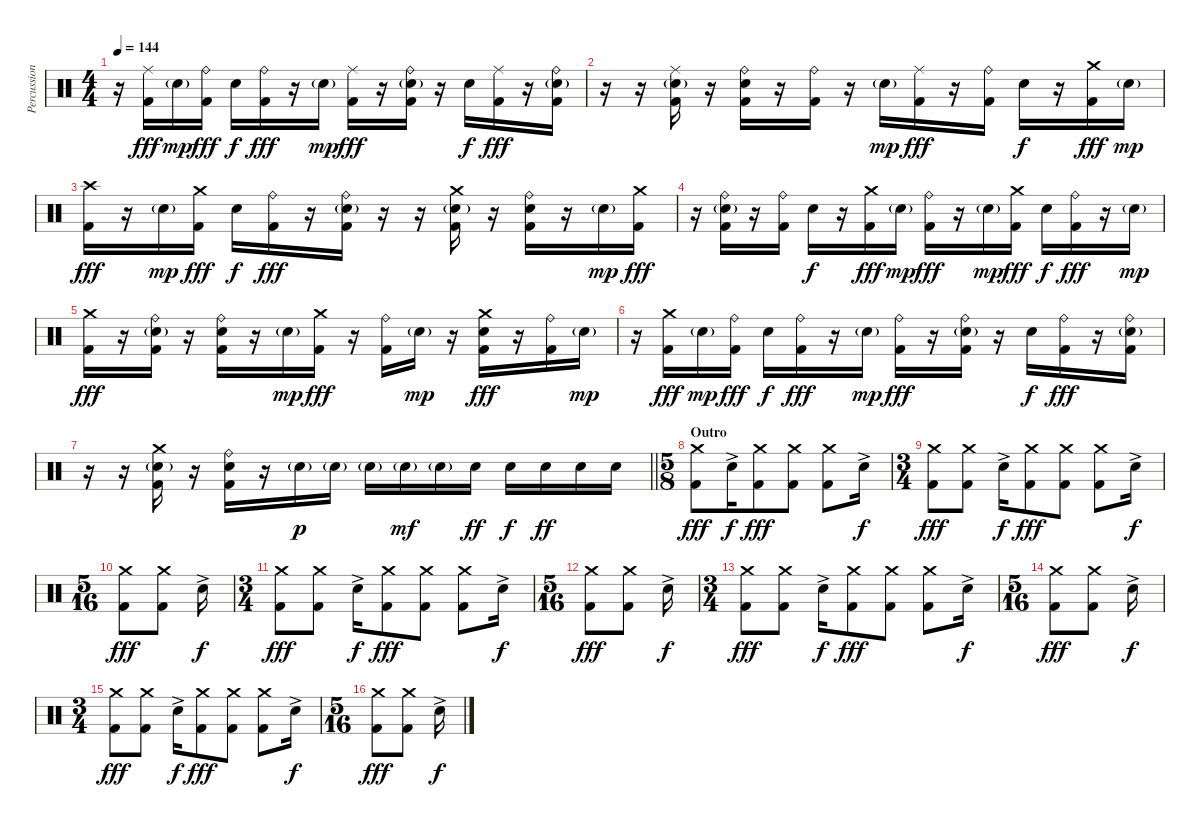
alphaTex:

\track ("Percussion" "Percussion") {instrument percussion}
\staff {score}
\articulation defaults
\ts (4 4)
\tempo 144
\clef neutral
\ks c
r.16{dy mp} ("Ride (middle)" "Kick (hit) 2").16{dy fff} "Electric Snare (hit)"{g}.16{dy mp} ("Ride (bell)" "Kick (hit) 2").16{dy fff} "Electric Snare (hit)".16{dy f} ("Ride (bell)" "Kick (hit) 2").16{dy fff} r.16 "Electric Snare (hit)"{g}.16{dy mp} ("Ride (middle)" "Kick (hit) 2").16{dy fff} r.16 ("Ride (bell)" "Electric Snare (hit)"{g} "Kick (hit) 2").16 r.16 "Electric Snare (hit)".16{dy f} ("Ride (middle)" "Kick (hit) 2").16{dy fff} r.16 ("Ride (bell)" "Electric Snare (hit)"{g} "Kick (hit) 2").16 |
r.16 r.16 ("Ride (middle)" "Electric Snare (hit)"{g} "Kick (hit) 2").16 r.16 ("Ride (bell)" "Electric Snare (hit)" "Kick (hit) 2").16 r.16 ("Ride (bell)" "Kick (hit) 2").16 r.16 "Electric Snare (hit)"{g}.16{dy mp} ("Ride (middle)" "Kick (hit) 2").16{dy fff} r.16 ("Ride (bell)" "Kick (hit) 2").16 "Electric Snare (hit)".16{dy f} r.16 ("Crash medium (hit)" "Kick (hit) 2").16{dy fff} "Electric Snare (hit)"{g}.16{dy mp} |
("Crash high (hit)" "Kick (hit) 2").16{dy fff} r.16 "Electric Snare (hit)"{g}.16{dy mp} ("Crash medium (hit)" "Kick (hit) 2").16{dy fff} "Electric Snare (hit)".16{dy f} ("Ride (bell)" "Kick (hit) 2").16{dy fff} r.16 ("Ride (bell)" "Electric Snare (hit)"{g} "Kick (hit) 2").16 r.16 r.16 ("Crash medium (hit)" "Electric Snare (hit)"{g} "Kick (hit) 2").16 r.16 ("Ride (bell)" "Electric Snare (hit)" "Kick (hit) 2").16 r.16 "Electric Snare (hit)"{g}.16{dy mp} ("Crash medium (hit)" "Kick (hit) 2").16{dy fff} |
r.16 ("Ride (bell)" "Electric Snare (hit)"{g} "Kick (hit) 2").16 r.16 ("Ride (bell)" "Kick (hit) 2").16 "Electric Snare (hit)".16{dy f} r.16 ("Crash medium (hit)" "Kick (hit) 2").16{dy fff} "Electric Snare (hit)"{g}.16{dy mp} ("Ride (bell)" "Kick (hit) 2").16{dy fff} r.16 "Electric Snare (hit)"{g}.16{dy mp} ("Crash medium (hit)" "Kick (hit) 2").16{dy fff} "Electric Snare (hit)".16{dy f} ("Ride (bell)" "Kick (hit) 2").16{dy fff} r.16 "Electric Snare (hit)"{g}.16{dy mp} |
("Crash medium (hit)" "Kick (hit) 2").16{dy fff} r.16 ("Ride (bell)" "Electric Snare (hit)"{g} "Kick (hit) 2").16 r.16 ("Ride (bell)" "Electric Snare (hit)" "Kick (hit) 2").16 r.16 "Electric Snare (hit)"{g}.16{dy mp} ("Crash medium (hit)" "Kick (hit) 2").16{dy fff} r.16 ("Ride (bell)" "Kick (hit) 2").16 "Electric Snare (hit)"{g}.16{dy mp} r.16 ("Crash medium (hit)" "Electric Snare (hit)" "Kick (hit) 2").16{dy fff} r.16 ("Ride (bell)" "Kick (hit) 2").16 "Electric Snare (hit)"{g}.16{dy mp} |
r.16 ("Crash medium (hit)" "Kick (hit) 2").16{dy fff} "Electric Snare (hit)"{g}.16{dy mp} ("Ride (bell)" "Kick (hit) 2").16{dy fff} "Electric Snare (hit)".16{dy f} ("Ride (bell)" "Kick (hit) 2").16{dy fff} r.16 "Electric Snare (hit)"{g}.16{dy mp} ("Ride (bell)" "Kick (hit) 2").16{dy fff} r.16 ("Ride (bell)" "Electric Snare (hit)"{g} "Kick (hit) 2").16 r.16 "Electric Snare (hit)".16{dy f} ("Ride (bell)" "Kick (hit) 2").16{dy fff} r.16 ("Ride (bell)" "Electric Snare (hit)"{g} "Kick (hit) 2").16 |
\barLineRight lightlight
r.16 r.16 ("Crash medium (hit)" "Electric Snare (hit)"{g} "Kick (hit) 2").16 r.16 ("Ride (bell)" "Electric Snare (hit)" "Kick (hit) 2").16 r.16 "Electric Snare (hit)"{g}.16{dy p} "Electric Snare (hit)"{g}.16 "Electric Snare (hit)"{g}.16 "Electric Snare (hit)"{g}.16{dy mf} "Electric Snare (hit)"{g}.16 "Electric Snare (hit)".16{dy ff} "Electric Snare (hit)".16{dy f} "Electric Snare (hit)".16{dy ff} "Electric Snare (hit)".16 "Electric Snare (hit)".16 |
\ts (5 8)
\section ("" "Outro")
("Crash medium (hit)" "Kick (hit) 2").8{dy fff} "Electric Snare (hit)"{ac}.16{dy f} ("Crash medium (hit)" "Kick (hit) 2").8{dy fff} ("Crash medium (hit)" "Kick (hit) 2").8 ("Crash medium (hit)" "Kick (hit) 2").8 "Electric Snare (hit)"{ac}.16{dy f} |
\ts (3 4)
("Crash medium (hit)" "Kick (hit) 2").8{dy fff} ("Crash medium (hit)" "Kick (hit) 2").8 "Electric Snare (hit)"{ac}.16{dy f} ("Crash medium (hit)" "Kick (hit) 2").8{dy fff} ("Crash medium (hit)" "Kick (hit) 2").8 ("Crash medium (hit)" "Kick (hit) 2").8 "Electric Snare (hit)"{ac}.16{dy f} |
\ts (5 16)
("Crash medium (hit)" "Kick (hit) 2").8{dy fff} ("Crash medium (hit)" "Kick (hit) 2").8 "Electric Snare (hit)"{ac}.16{dy f} |
\ts (3 4)
("Crash medium (hit)" "Kick (hit) 2").8{dy fff} ("Crash medium (hit)" "Kick (hit) 2").8 "Electric Snare (hit)"{ac}.16{dy f} ("Crash medium (hit)" "Kick (hit) 2").8{dy fff} ("Crash medium (hit)" "Kick (hit) 2").8 ("Crash medium (hit)" "Kick (hit) 2").8 "Electric Snare (hit)"{ac}.16{dy f} |
\ts (5 16)
("Crash medium (hit)" "Kick (hit) 2").8{dy fff} ("Crash medium (hit)" "Kick (hit) 2").8 "Electric Snare (hit)"{ac}.16{dy f} |
\ts (3 4)
("Crash medium (hit)" "Kick (hit) 2").8{dy fff} ("Crash medium (hit)" "Kick (hit) 2").8 "Electric Snare (hit)"{ac}.16{dy f} ("Crash medium (hit)" "Kick (hit) 2").8{dy fff} ("Crash medium (hit)" "Kick (hit) 2").8 ("Crash medium (hit)" "Kick (hit) 2").8 "Electric Snare (hit)"{ac}.16{dy f} |
\ts (5 16)
("Crash medium (hit)" "Kick (hit) 2").8{dy fff} ("Crash medium (hit)" "Kick (hit) 2").8 "Electric Snare (hit)"{ac}.16{dy f} |
\ts (3 4)
("Crash medium (hit)" "Kick (hit) 2").8{dy fff} ("Crash medium (hit)" "Kick (hit) 2").8 "Electric Snare (hit)"{ac}.16{dy f} ("Crash medium (hit)" "Kick (hit) 2").8{dy fff} ("Crash medium (hit)" "Kick (hit) 2").8 ("Crash medium (hit)" "Kick (hit) 2").8 "Electric Snare (hit)"{ac}.16{dy f} |
\ts (5 16)
("Crash medium (hit)" "Kick (hit) 2").8{dy fff} ("Crash medium (hit)" "Kick (hit) 2").8 "Electric Snare (hit)"{ac}.16{dy f}
